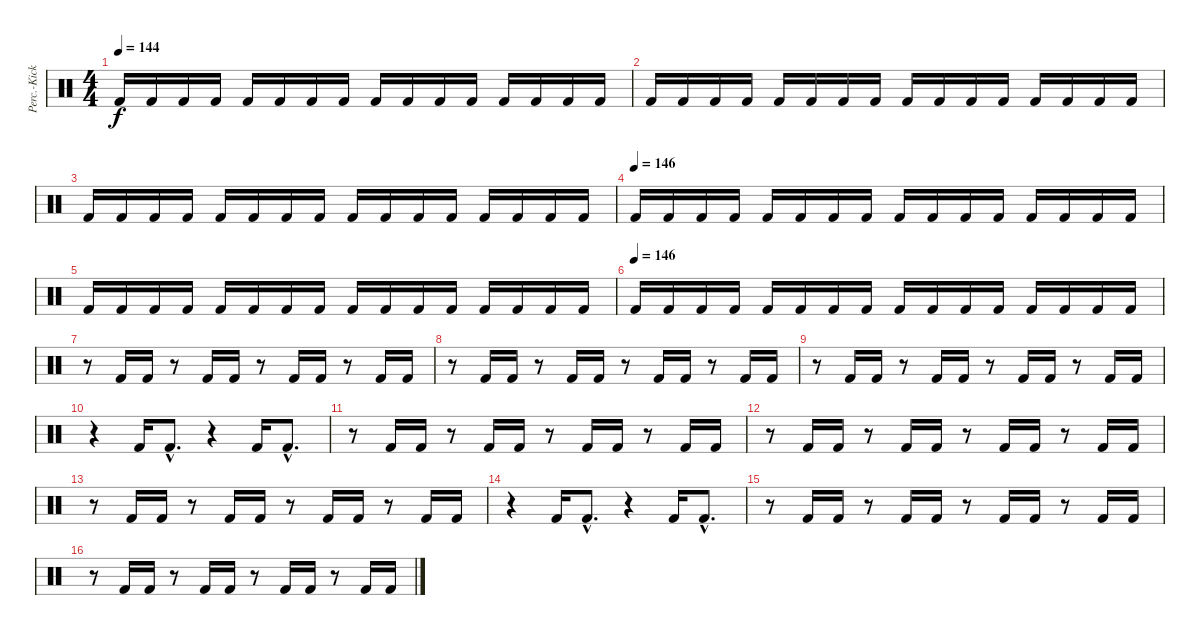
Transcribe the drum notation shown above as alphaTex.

\track ("Perc.-Kick" "Perc.-Kick") {instrument percussion}
\staff {score}
\articulation defaults
\ts (4 4)
\tempo 144
\clef neutral
\ks c "Kick (hit) 2".16{dy f} "Kick (hit) 2".16 "Kick (hit) 2".16 "Kick (hit) 2".16 "Kick (hit) 2".16 "Kick (hit) 2".16 "Kick (hit) 2".16 "Kick (hit) 2".16 "Kick (hit) 2".16 "Kick (hit) 2".16 "Kick (hit) 2".16 "Kick (hit) 2".16 "Kick (hit) 2".16 "Kick (hit) 2".16 "Kick (hit) 2".16 "Kick (hit) 2".16
|
"Kick (hit) 2".16 "Kick (hit) 2".16 "Kick (hit) 2".16 "Kick (hit) 2".16 "Kick (hit) 2".16 "Kick (hit) 2".16 "Kick (hit) 2".16 "Kick (hit) 2".16 "Kick (hit) 2".16 "Kick (hit) 2".16 "Kick (hit) 2".16 "Kick (hit) 2".16 "Kick (hit) 2".16 "Kick (hit) 2".16 "Kick (hit) 2".16 "Kick (hit) 2".16 |
"Kick (hit) 2".16 "Kick (hit) 2".16 "Kick (hit) 2".16 "Kick (hit) 2".16 "Kick (hit) 2".16 "Kick (hit) 2".16 "Kick (hit) 2".16 "Kick (hit) 2".16 "Kick (hit) 2".16 "Kick (hit) 2".16 "Kick (hit) 2".16 "Kick (hit) 2".16 "Kick (hit) 2".16 "Kick (hit) 2".16 "Kick (hit) 2".16 "Kick (hit) 2".16 |
\tempo (146)
"Kick (hit) 2".16 "Kick (hit) 2".16 "Kick (hit) 2".16 "Kick (hit) 2".16 "Kick (hit) 2".16 "Kick (hit) 2".16 "Kick (hit) 2".16 "Kick (hit) 2".16 "Kick (hit) 2".16 "Kick (hit) 2".16 "Kick (hit) 2".16 "Kick (hit) 2".16 "Kick (hit) 2".16 "Kick (hit) 2".16 "Kick (hit) 2".16 "Kick (hit) 2".16 |
"Kick (hit) 2".16 "Kick (hit) 2".16 "Kick (hit) 2".16 "Kick (hit) 2".16 "Kick (hit) 2".16 "Kick (hit) 2".16 "Kick (hit) 2".16 "Kick (hit) 2".16 "Kick (hit) 2".16 "Kick (hit) 2".16 "Kick (hit) 2".16 "Kick (hit) 2".16 "Kick (hit) 2".16 "Kick (hit) 2".16 "Kick (hit) 2".16 "Kick (hit) 2".16 |
\tempo (146)
"Kick (hit) 2".16 "Kick (hit) 2".16 "Kick (hit) 2".16 "Kick (hit) 2".16 "Kick (hit) 2".16 "Kick (hit) 2".16 "Kick (hit) 2".16 "Kick (hit) 2".16 "Kick (hit) 2".16 "Kick (hit) 2".16 "Kick (hit) 2".16 "Kick (hit) 2".16 "Kick (hit) 2".16 "Kick (hit) 2".16 "Kick (hit) 2".16 "Kick (hit) 2".16 |
r.8 "Kick (hit) 2".16 "Kick (hit) 2".16 r.8 "Kick (hit) 2".16 "Kick (hit) 2".16 r.8 "Kick (hit) 2".16 "Kick (hit) 2".16 r.8 "Kick (hit) 2".16 "Kick (hit) 2".16 |
r.8 "Kick (hit) 2".16 "Kick (hit) 2".16 r.8 "Kick (hit) 2".16 "Kick (hit) 2".16 r.8 "Kick (hit) 2".16 "Kick (hit) 2".16 r.8 "Kick (hit) 2".16 "Kick (hit) 2".16 |
r.8 "Kick (hit) 2".16 "Kick (hit) 2".16 r.8 "Kick (hit) 2".16 "Kick (hit) 2".16 r.8 "Kick (hit) 2".16 "Kick (hit) 2".16 r.8 "Kick (hit) 2".16 "Kick (hit) 2".16 |
r.4 "Kick (hit) 2".16 "Kick (hit) 2"{hac}.8{d} r.4 "Kick (hit) 2".16 "Kick (hit) 2"{hac}.8{d} |
r.8 "Kick (hit) 2".16 "Kick (hit) 2".16 r.8 "Kick (hit) 2".16 "Kick (hit) 2".16 r.8 "Kick (hit) 2".16 "Kick (hit) 2".16 r.8 "Kick (hit) 2".16 "Kick (hit) 2".16 |
r.8 "Kick (hit) 2".16 "Kick (hit) 2".16 r.8 "Kick (hit) 2".16 "Kick (hit) 2".16 r.8 "Kick (hit) 2".16 "Kick (hit) 2".16 r.8 "Kick (hit) 2".16 "Kick (hit) 2".16 |
r.8 "Kick (hit) 2".16 "Kick (hit) 2".16 r.8 "Kick (hit) 2".16 "Kick (hit) 2".16 r.8 "Kick (hit) 2".16 "Kick (hit) 2".16 r.8 "Kick (hit) 2".16 "Kick (hit) 2".16 |
r.4 "Kick (hit) 2".16 "Kick (hit) 2"{hac}.8{d} r.4 "Kick (hit) 2".16 "Kick (hit) 2"{hac}.8{d} |
r.8 "Kick (hit) 2".16 "Kick (hit) 2".16 r.8 "Kick (hit) 2".16 "Kick (hit) 2".16 r.8 "Kick (hit) 2".16 "Kick (hit) 2".16 r.8 "Kick (hit) 2".16 "Kick (hit) 2".16 |
r.8 "Kick (hit) 2".16 "Kick (hit) 2".16 r.8 "Kick (hit) 2".16 "Kick (hit) 2".16 r.8 "Kick (hit) 2".16 "Kick (hit) 2".16 r.8 "Kick (hit) 2".16 "Kick (hit) 2".16
